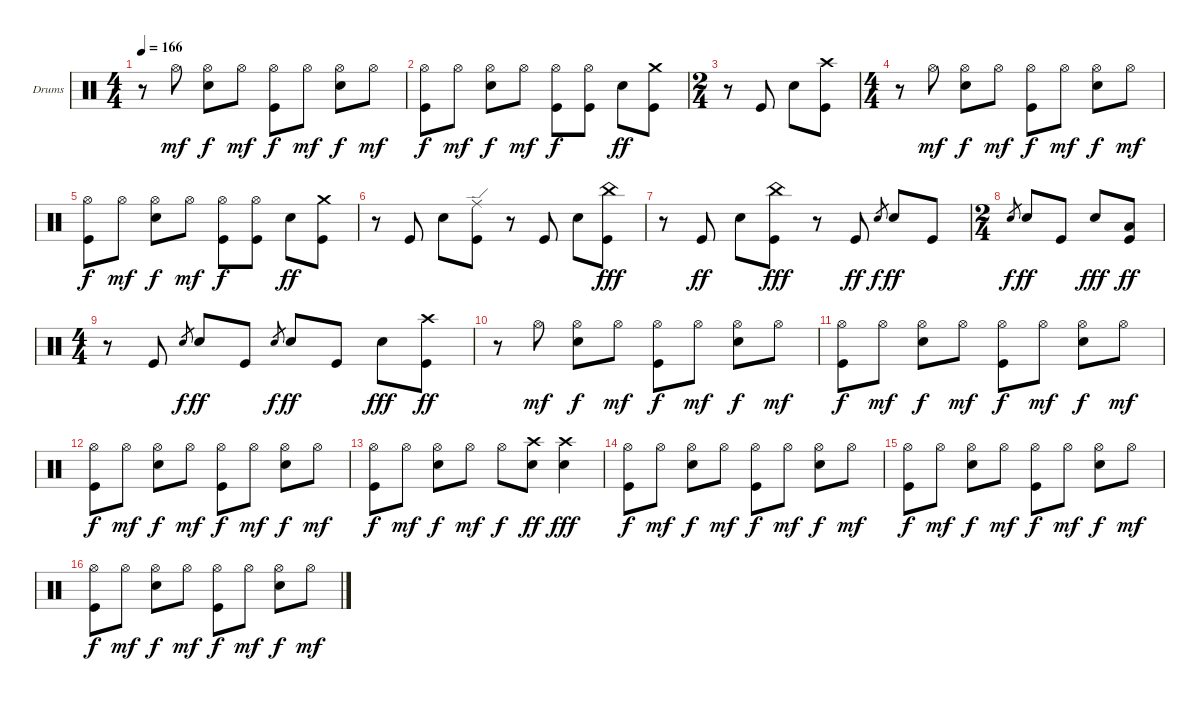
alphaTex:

\defaultSystemsLayout 4
\bracketExtendMode groupsimilarinstruments
\firstSystemTrackNameOrientation horizontal
\otherSystemsTrackNameOrientation horizontal
\track ("Lars Ulrich" "Drums") {instrument percussion}
\staff {score}
\articulation defaults
\ts (4 4)
\tempo 166
\clef neutral
\scale
0.391473
\ks c
r.8{dy ff} "Hi-Hat (open)".8{dy mf} ("Hi-Hat (open)" "Snare (hit) 2").8{dy f} "Hi-Hat (open)".8{dy mf} ("Hi-Hat (open)" "Kick (hit)").8{dy f} "Hi-Hat (open)".8{dy mf} ("Hi-Hat (open)" "Snare (hit) 2").8{dy f} "Hi-Hat (open)".8{dy mf} |
\scale
0.217054 ("Hi-Hat (open)" "Kick (hit)").8{dy f} "Hi-Hat (open)".8{dy mf} ("Hi-Hat (open)" "Snare (hit) 2").8{dy f} "Hi-Hat (open)".8{dy mf} ("Hi-Hat (open)" "Kick (hit)").8{dy f} ("Hi-Hat (open)" "Kick (hit)").8 "Snare (hit) 2".8{dy ff} ("Crash medium (hit)" "Kick (hit)").8 |
\ts (2 4)
\scale
0.391473 r.8 "Kick (hit)".8 "Snare (hit) 2".8 ("Crash high (hit)" "Kick (hit)").8 |
\ts (4 4)
\scale
0.391473 r.8 "Hi-Hat (open)".8{dy mf} ("Hi-Hat (open)" "Snare (hit) 2").8{dy f} "Hi-Hat (open)".8{dy mf} ("Hi-Hat (open)" "Kick (hit)").8{dy f} "Hi-Hat (open)".8{dy mf} ("Hi-Hat (open)" "Snare (hit) 2").8{dy f} "Hi-Hat (open)".8{dy mf} |
\scale
0.217054 ("Hi-Hat (open)" "Kick (hit)").8{dy f} "Hi-Hat (open)".8{dy mf} ("Hi-Hat (open)" "Snare (hit) 2").8{dy f} "Hi-Hat (open)".8{dy mf} ("Hi-Hat (open)" "Kick (hit)").8{dy f} ("Hi-Hat (open)" "Kick (hit)").8 "Snare (hit) 2".8{dy ff} ("Crash medium (hit)" "Kick (hit)").8 |
\scale
0.262911 r.8 "Kick (hit)".8 "Snare (hit) 2".8 ("Ride (edge)" "Kick (hit)").8 r.8 "Kick (hit)".8 "Snare (hit) 2".8 ("China (hit)" "Kick (hit)").8{dy fff} |
\scale
0.262911 r.8 "Kick (hit)".8{dy ff} "Snare (hit) 2".8 ("China (hit)" "Kick (hit)").8{dy fff} r.8 "Kick (hit)".8{dy ff} "Snare (hit) 2".8{gr dy f} "Snare (hit) 2".8{dy ff} "Kick (hit)".8 |
\ts (2 4)
\scale
0.474178 "Snare (hit) 2".8{gr dy f} "Snare (hit) 2".8{dy ff} "Kick (hit)".8 "Snare (hit) 2".8{dy fff} ("Low Tom (hit)" "Kick (hit)").8{dy ff} |
\ts (4 4)
\scale
0.474178 r.8 "Kick (hit)".8 "Snare (hit) 2".8{gr dy f} "Snare (hit) 2".8{dy ff} "Kick (hit)".8 "Snare (hit) 2".8{gr dy f} "Snare (hit) 2".8{dy ff} "Kick (hit)".8 "Snare (hit) 2".8{dy fff} ("Crash high (hit)" "Kick (hit)").8{dy ff} |
\scale
0.262911 r.8 "Hi-Hat (open)".8{dy mf} ("Hi-Hat (open)" "Snare (hit) 2").8{dy f} "Hi-Hat (open)".8{dy mf} ("Hi-Hat (open)" "Kick (hit)").8{dy f} "Hi-Hat (open)".8{dy mf} ("Hi-Hat (open)" "Snare (hit) 2").8{dy f} "Hi-Hat (open)".8{dy mf} |
\scale
0.262911 ("Hi-Hat (open)" "Kick (hit)").8{dy f} "Hi-Hat (open)".8{dy mf} ("Hi-Hat (open)" "Snare (hit) 2").8{dy f} "Hi-Hat (open)".8{dy mf} ("Hi-Hat (open)" "Kick (hit)").8{dy f} "Hi-Hat (open)".8{dy mf} ("Hi-Hat (open)" "Snare (hit) 2").8{dy f} "Hi-Hat (open)".8{dy mf} |
\scale
0.333333 ("Hi-Hat (open)" "Kick (hit)").8{dy f} "Hi-Hat (open)".8{dy mf} ("Hi-Hat (open)" "Snare (hit) 2").8{dy f} "Hi-Hat (open)".8{dy mf} ("Hi-Hat (open)" "Kick (hit)").8{dy f} "Hi-Hat (open)".8{dy mf} ("Hi-Hat (open)" "Snare (hit) 2").8{dy f} "Hi-Hat (open)".8{dy mf} |
\scale
0.333333 ("Hi-Hat (open)" "Kick (hit)").8{dy f} "Hi-Hat (open)".8{dy mf} ("Hi-Hat (open)" "Snare (hit) 2").8{dy f} "Hi-Hat (open)".8{dy mf} "Hi-Hat (open)".8{dy f} ("Crash high (hit)" "Snare (hit) 2").8{dy ff} ("Crash high (hit)" "Snare (hit) 2").4{dy fff} |
\scale
0.333333 ("Hi-Hat (open)" "Kick (hit)").8{dy f} "Hi-Hat (open)".8{dy mf} ("Hi-Hat (open)" "Snare (hit) 2").8{dy f} "Hi-Hat (open)".8{dy mf} ("Hi-Hat (open)" "Kick (hit)").8{dy f} "Hi-Hat (open)".8{dy mf} ("Hi-Hat (open)" "Snare (hit) 2").8{dy f} "Hi-Hat (open)".8{dy mf} |
\scale
0.333333 ("Hi-Hat (open)" "Kick (hit)").8{dy f} "Hi-Hat (open)".8{dy mf} ("Hi-Hat (open)" "Snare (hit) 2").8{dy f} "Hi-Hat (open)".8{dy mf} ("Hi-Hat (open)" "Kick (hit)").8{dy f} "Hi-Hat (open)".8{dy mf} ("Hi-Hat (open)" "Snare (hit) 2").8{dy f} "Hi-Hat (open)".8{dy mf} |
\scale
0.333333 ("Hi-Hat (open)" "Kick (hit)").8{dy f} "Hi-Hat (open)".8{dy mf} ("Hi-Hat (open)" "Snare (hit) 2").8{dy f} "Hi-Hat (open)".8{dy mf} ("Hi-Hat (open)" "Kick (hit)").8{dy f} "Hi-Hat (open)".8{dy mf} ("Hi-Hat (open)" "Snare (hit) 2").8{dy f} "Hi-Hat (open)".8{dy mf}
